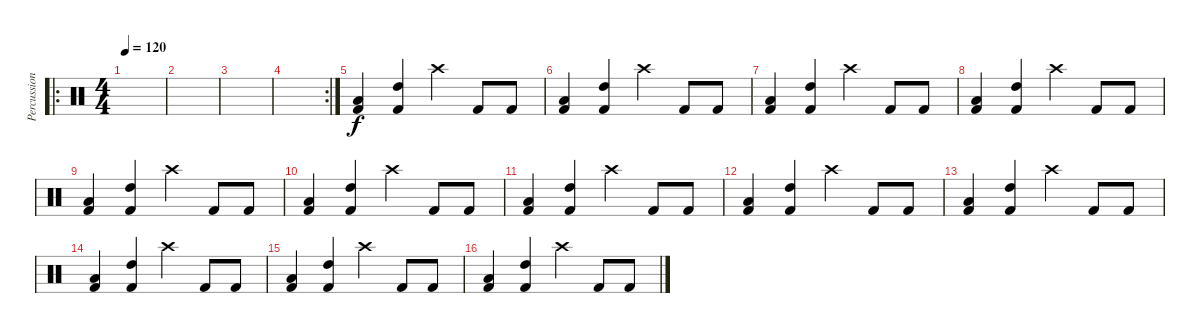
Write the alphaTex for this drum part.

\track ("Percussion" "Percussion") {instrument percussion}
\staff {score}
\articulation defaults
\ro
\ts (4 4)
\tempo 120
\clef neutral
\ks c
|
|
|
\rc 2
|
("Low Floor Tom (hit)" "Kick (hit) 2").4 ("High Tom (hit)" "Kick (hit) 2").4 "Crash high (hit)".4 "Kick (hit) 2".8 "Kick (hit) 2".8 |
("Low Floor Tom (hit)" "Kick (hit) 2").4 ("High Tom (hit)" "Kick (hit) 2").4 "Crash high (hit)".4 "Kick (hit) 2".8 "Kick (hit) 2".8 |
("Low Floor Tom (hit)" "Kick (hit) 2").4 ("High Tom (hit)" "Kick (hit) 2").4 "Crash high (hit)".4 "Kick (hit) 2".8 "Kick (hit) 2".8 |
("Low Floor Tom (hit)" "Kick (hit) 2").4 ("High Tom (hit)" "Kick (hit) 2").4 "Crash high (hit)".4 "Kick (hit) 2".8 "Kick (hit) 2".8 |
("Low Floor Tom (hit)" "Kick (hit) 2").4 ("High Tom (hit)" "Kick (hit) 2").4 "Crash high (hit)".4 "Kick (hit) 2".8 "Kick (hit) 2".8 |
("Low Floor Tom (hit)" "Kick (hit) 2").4 ("High Tom (hit)" "Kick (hit) 2").4 "Crash high (hit)".4 "Kick (hit) 2".8 "Kick (hit) 2".8 |
("Low Floor Tom (hit)" "Kick (hit) 2").4 ("High Tom (hit)" "Kick (hit) 2").4 "Crash high (hit)".4 "Kick (hit) 2".8 "Kick (hit) 2".8 |
("Low Floor Tom (hit)" "Kick (hit) 2").4 ("High Tom (hit)" "Kick (hit) 2").4 "Crash high (hit)".4 "Kick (hit) 2".8 "Kick (hit) 2".8 |
("Low Floor Tom (hit)" "Kick (hit) 2").4 ("High Tom (hit)" "Kick (hit) 2").4 "Crash high (hit)".4 "Kick (hit) 2".8 "Kick (hit) 2".8 |
("Low Floor Tom (hit)" "Kick (hit) 2").4 ("High Tom (hit)" "Kick (hit) 2").4 "Crash high (hit)".4 "Kick (hit) 2".8 "Kick (hit) 2".8 |
("Low Floor Tom (hit)" "Kick (hit) 2").4 ("High Tom (hit)" "Kick (hit) 2").4 "Crash high (hit)".4 "Kick (hit) 2".8 "Kick (hit) 2".8 |
("Low Floor Tom (hit)" "Kick (hit) 2").4 ("High Tom (hit)" "Kick (hit) 2").4 "Crash high (hit)".4 "Kick (hit) 2".8 "Kick (hit) 2".8
